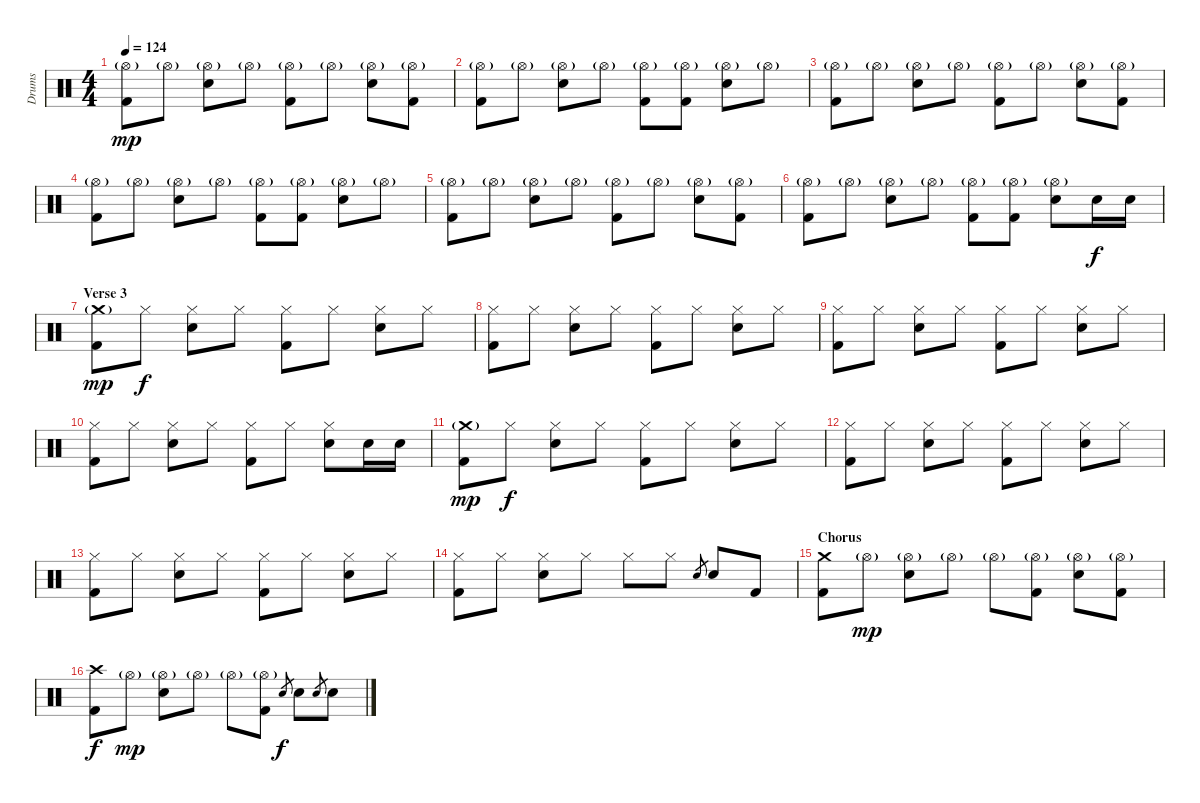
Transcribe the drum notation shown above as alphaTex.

\track ("Drums" "Drums") {instrument percussion}
\staff {score}
\articulation defaults
\ts (4 4)
\tempo 124
\clef neutral
\ks c
("Hi-Hat (open)"{g} "Kick (hit) 2").8{dy mp} "Hi-Hat (open)"{g}.8 ("Hi-Hat (open)"{g} "Snare (hit) 2").8 "Hi-Hat (open)"{g}.8 ("Hi-Hat (open)"{g} "Kick (hit) 2").8 "Hi-Hat (open)"{g}.8 ("Hi-Hat (open)"{g} "Snare (hit) 2").8 ("Hi-Hat (open)"{g} "Kick (hit) 2").8 |
("Hi-Hat (open)"{g} "Kick (hit) 2").8 "Hi-Hat (open)"{g}.8 ("Hi-Hat (open)"{g} "Snare (hit) 2").8 "Hi-Hat (open)"{g}.8 ("Hi-Hat (open)"{g} "Kick (hit) 2").8 ("Hi-Hat (open)"{g} "Kick (hit) 2").8 ("Hi-Hat (open)"{g} "Snare (hit) 2").8 "Hi-Hat (open)"{g}.8 |
("Hi-Hat (open)"{g} "Kick (hit) 2").8 "Hi-Hat (open)"{g}.8 ("Hi-Hat (open)"{g} "Snare (hit) 2").8 "Hi-Hat (open)"{g}.8 ("Hi-Hat (open)"{g} "Kick (hit) 2").8 "Hi-Hat (open)"{g}.8 ("Hi-Hat (open)"{g} "Snare (hit) 2").8 ("Hi-Hat (open)"{g} "Kick (hit) 2").8 |
("Hi-Hat (open)"{g} "Kick (hit) 2").8 "Hi-Hat (open)"{g}.8 ("Hi-Hat (open)"{g} "Snare (hit) 2").8 "Hi-Hat (open)"{g}.8 ("Hi-Hat (open)"{g} "Kick (hit) 2").8 ("Hi-Hat (open)"{g} "Kick (hit) 2").8 ("Hi-Hat (open)"{g} "Snare (hit) 2").8 "Hi-Hat (open)"{g}.8 |
("Hi-Hat (open)"{g} "Kick (hit) 2").8 "Hi-Hat (open)"{g}.8 ("Hi-Hat (open)"{g} "Snare (hit) 2").8 "Hi-Hat (open)"{g}.8 ("Hi-Hat (open)"{g} "Kick (hit) 2").8 "Hi-Hat (open)"{g}.8 ("Hi-Hat (open)"{g} "Snare (hit) 2").8 ("Hi-Hat (open)"{g} "Kick (hit) 2").8 |
("Hi-Hat (open)"{g} "Kick (hit) 2").8 "Hi-Hat (open)"{g}.8 ("Hi-Hat (open)"{g} "Snare (hit) 2").8 "Hi-Hat (open)"{g}.8 ("Hi-Hat (open)"{g} "Kick (hit) 2").8 ("Hi-Hat (open)"{g} "Kick (hit) 2").8 ("Hi-Hat (open)"{g} "Snare (hit) 2").8 "Snare (hit) 2".16{dy f} "Snare (hit) 2".16 |
\section ("" "Verse 3")
("Crash medium (hit)"{g} "Kick (hit) 2").8{dy mp} "Hi-Hat (closed)".8{dy f} ("Hi-Hat (closed)" "Snare (hit) 2").8 "Hi-Hat (closed)".8 ("Hi-Hat (closed)" "Kick (hit) 2").8 "Hi-Hat (closed)".8 ("Hi-Hat (closed)" "Snare (hit) 2").8 "Hi-Hat (closed)".8 |
("Hi-Hat (closed)" "Kick (hit) 2").8 "Hi-Hat (closed)".8 ("Hi-Hat (closed)" "Snare (hit) 2").8 "Hi-Hat (closed)".8 ("Hi-Hat (closed)" "Kick (hit) 2").8 "Hi-Hat (closed)".8 ("Hi-Hat (closed)" "Snare (hit) 2").8 "Hi-Hat (closed)".8 |
("Hi-Hat (closed)" "Kick (hit) 2").8 "Hi-Hat (closed)".8 ("Hi-Hat (closed)" "Snare (hit) 2").8 "Hi-Hat (closed)".8 ("Hi-Hat (closed)" "Kick (hit) 2").8 "Hi-Hat (closed)".8 ("Hi-Hat (closed)" "Snare (hit) 2").8 "Hi-Hat (closed)".8 |
("Hi-Hat (closed)" "Kick (hit) 2").8 "Hi-Hat (closed)".8 ("Hi-Hat (closed)" "Snare (hit) 2").8 "Hi-Hat (closed)".8 ("Hi-Hat (closed)" "Kick (hit) 2").8 "Hi-Hat (closed)".8 ("Hi-Hat (closed)" "Snare (hit) 2").8 "Snare (hit) 2".16 "Snare (hit) 2".16 |
("Crash medium (hit)"{g} "Kick (hit) 2").8{dy mp} "Hi-Hat (closed)".8{dy f} ("Hi-Hat (closed)" "Snare (hit) 2").8 "Hi-Hat (closed)".8 ("Hi-Hat (closed)" "Kick (hit) 2").8 "Hi-Hat (closed)".8 ("Hi-Hat (closed)" "Snare (hit) 2").8 "Hi-Hat (closed)".8 |
("Hi-Hat (closed)" "Kick (hit) 2").8 "Hi-Hat (closed)".8 ("Hi-Hat (closed)" "Snare (hit) 2").8 "Hi-Hat (closed)".8 ("Hi-Hat (closed)" "Kick (hit) 2").8 "Hi-Hat (closed)".8 ("Hi-Hat (closed)" "Snare (hit) 2").8 "Hi-Hat (closed)".8 |
("Hi-Hat (closed)" "Kick (hit) 2").8 "Hi-Hat (closed)".8 ("Hi-Hat (closed)" "Snare (hit) 2").8 "Hi-Hat (closed)".8 ("Hi-Hat (closed)" "Kick (hit) 2").8 "Hi-Hat (closed)".8 ("Hi-Hat (closed)" "Snare (hit) 2").8 "Hi-Hat (closed)".8 |
("Hi-Hat (closed)" "Kick (hit) 2").8 "Hi-Hat (closed)".8 ("Hi-Hat (closed)" "Snare (hit) 2").8 "Hi-Hat (closed)".8 "Hi-Hat (closed)".8 "Hi-Hat (closed)".8 "Snare (hit) 2".8{gr} "Snare (hit) 2".8 "Kick (hit) 2".8 |
\section ("" "Chorus")
("Crash medium (hit)" "Kick (hit) 2").8 "Hi-Hat (open)"{g}.8{dy mp} ("Hi-Hat (open)"{g} "Snare (hit) 2").8 "Hi-Hat (open)"{g}.8 "Hi-Hat (open)"{g}.8 ("Hi-Hat (open)"{g} "Kick (hit) 2").8 ("Hi-Hat (open)"{g} "Snare (hit) 2").8 ("Hi-Hat (open)"{g} "Kick (hit) 2").8 |
("Crash high (hit)" "Kick (hit) 2").8{dy f} "Hi-Hat (open)"{g}.8{dy mp} ("Hi-Hat (open)"{g} "Snare (hit) 2").8 "Hi-Hat (open)"{g}.8 "Hi-Hat (open)"{g}.8 ("Hi-Hat (open)"{g} "Kick (hit) 2").8 "Snare (hit) 2".8{gr dy f} "Snare (hit) 2".8 "Snare (hit) 2".8{gr} "Snare (hit) 2".8
